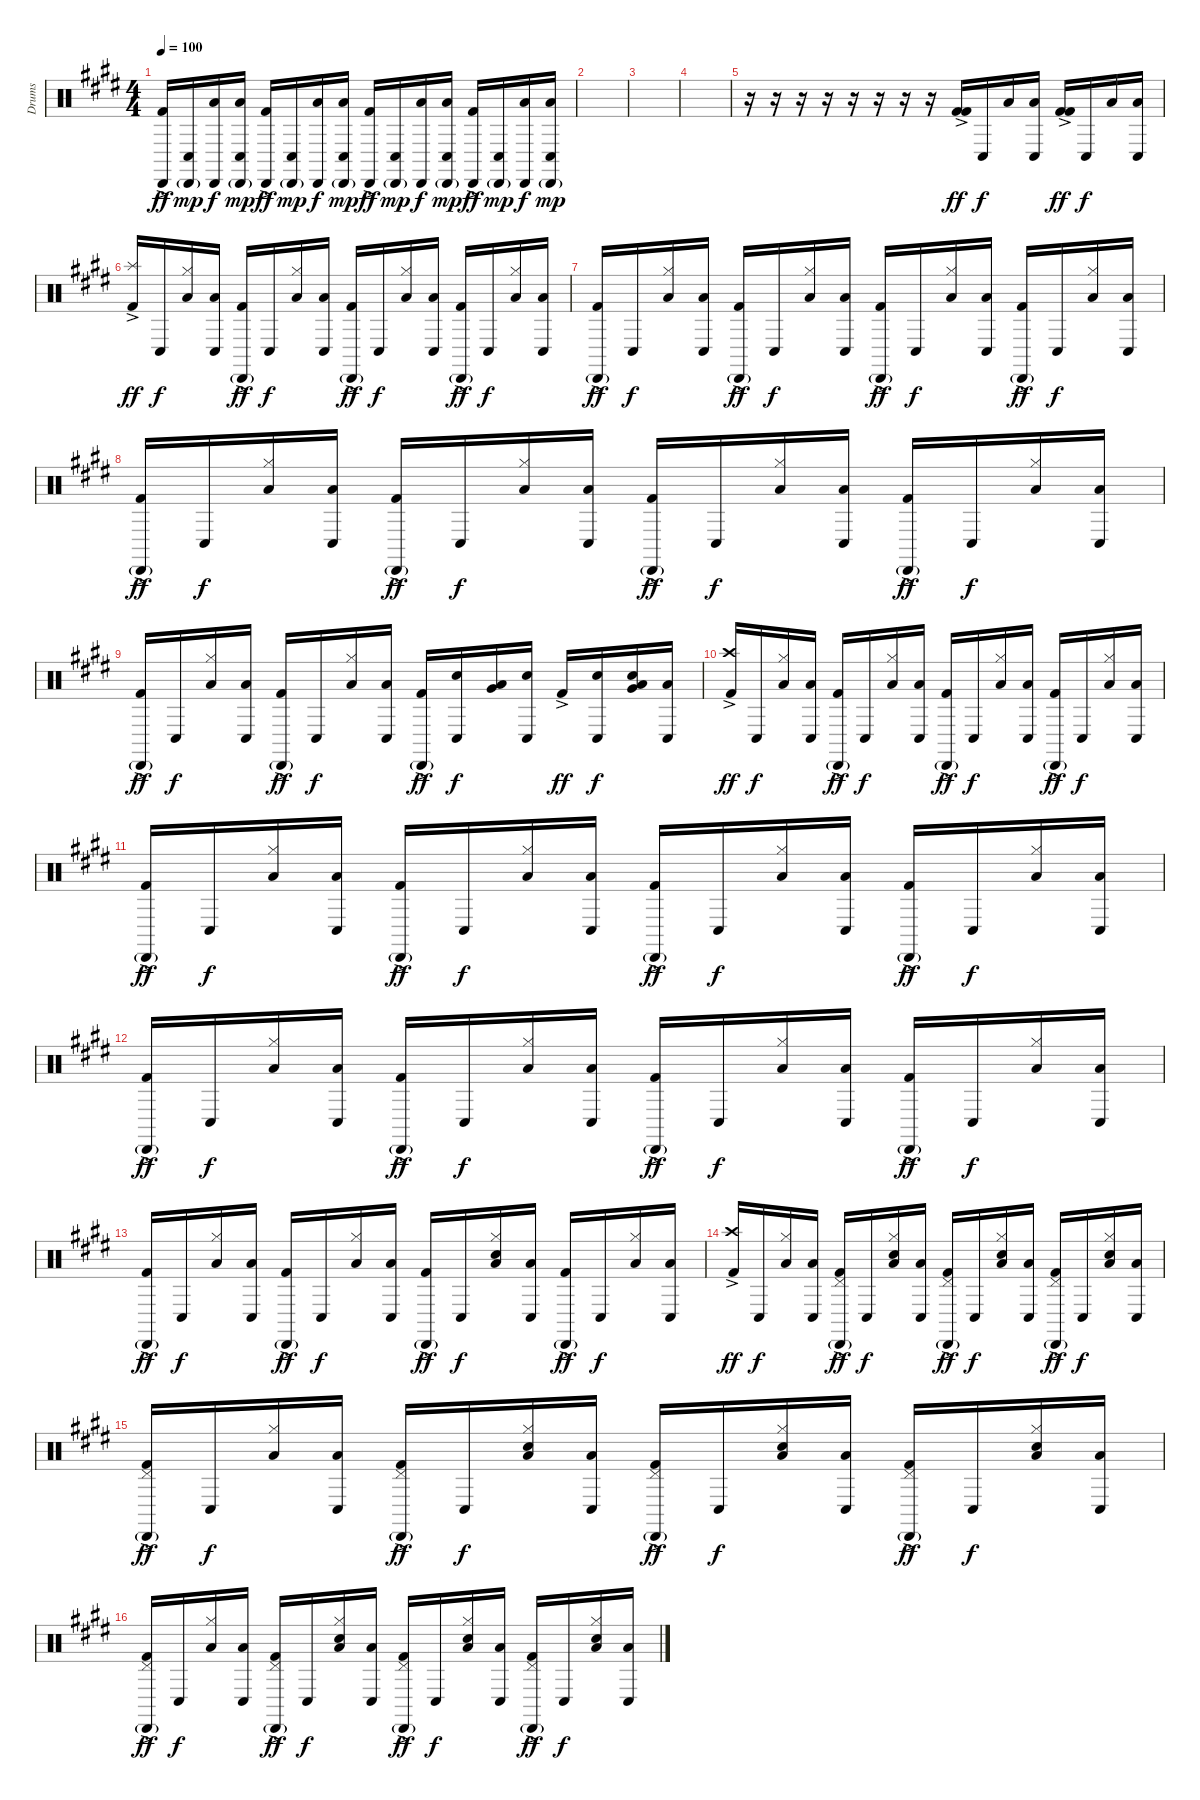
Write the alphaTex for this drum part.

\track ("Drums" "Drums") {instrument percussion}
\staff {score}
\articulation defaults
\ts (4 4)
\tempo 100
\clef neutral
\ks e
("Cabasa (hit)" "Kick (hit) 2"{ac}).16{dy ff} ("Cabasa (hit)"{g} "Conga low (hit)").16{dy mp} ("Cabasa (hit)" "Low Tom (hit)").16{dy f} ("Cabasa (hit)"{g} "Low Tom (hit)" "Conga low (hit)").16{dy mp} ("Cabasa (hit)" "Kick (hit) 2"{ac}).16{dy ff} ("Cabasa (hit)"{g} "Conga low (hit)").16{dy mp} ("Cabasa (hit)" "Low Tom (hit)").16{dy f} ("Cabasa (hit)"{g} "Low Tom (hit)" "Conga low (hit)").16{dy mp} ("Cabasa (hit)" "Kick (hit) 2"{ac}).16{dy ff} ("Cabasa (hit)"{g} "Conga low (hit)").16{dy mp} ("Cabasa (hit)" "Low Tom (hit)").16{dy f} ("Cabasa (hit)"{g} "Low Tom (hit)" "Conga low (hit)").16{dy mp} ("Cabasa (hit)" "Kick (hit) 2"{ac}).16{dy ff} ("Cabasa (hit)"{g} "Conga low (hit)").16{dy mp} ("Cabasa (hit)" "Low Tom (hit)").16{dy f} ("Cabasa (hit)"{g} "Low Tom (hit)" "Conga low (hit)").16{dy mp} |
|
|
|
r.16 r.16 r.16 r.16 r.16 r.16 r.16 r.16 ("Kick (hit) 2"{ac} "Kick (hit) 2"{ac}).16{dy ff} "Conga low (hit)".16{dy f} "Low Tom (hit)".16 ("Low Tom (hit)" "Conga low (hit)").16 ("Kick (hit) 2"{ac} "Kick (hit) 2"{ac}).16{dy ff} "Conga low (hit)".16{dy f} "Low Tom (hit)".16 ("Low Tom (hit)" "Conga low (hit)").16 |
("Splash (hit)" "Kick (hit) 2"{ac}).16{dy ff} "Conga low (hit)".16{dy f} ("Hi-Hat (closed)" "Low Tom (hit)").16 ("Low Tom (hit)" "Conga low (hit)").16 ("Cabasa (hit)"{g} "Kick (hit) 2"{ac}).16{dy ff} "Conga low (hit)".16{dy f} ("Hi-Hat (closed)" "Low Tom (hit)").16 ("Low Tom (hit)" "Conga low (hit)").16 ("Cabasa (hit)"{g} "Kick (hit) 2"{ac}).16{dy ff} "Conga low (hit)".16{dy f} ("Hi-Hat (closed)" "Low Tom (hit)").16 ("Low Tom (hit)" "Conga low (hit)").16 ("Cabasa (hit)"{g} "Kick (hit) 2"{ac}).16{dy ff} "Conga low (hit)".16{dy f} ("Hi-Hat (closed)" "Low Tom (hit)").16 ("Low Tom (hit)" "Conga low (hit)").16 |
("Cabasa (hit)"{g} "Kick (hit) 2"{ac}).16{dy ff} "Conga low (hit)".16{dy f} ("Hi-Hat (closed)" "Low Tom (hit)").16 ("Low Tom (hit)" "Conga low (hit)").16 ("Cabasa (hit)"{g} "Kick (hit) 2"{ac}).16{dy ff} "Conga low (hit)".16{dy f} ("Hi-Hat (closed)" "Low Tom (hit)").16 ("Low Tom (hit)" "Conga low (hit)").16 ("Cabasa (hit)"{g} "Kick (hit) 2"{ac}).16{dy ff} "Conga low (hit)".16{dy f} ("Hi-Hat (closed)" "Low Tom (hit)").16 ("Low Tom (hit)" "Conga low (hit)").16 ("Cabasa (hit)"{g} "Kick (hit) 2"{ac}).16{dy ff} "Conga low (hit)".16{dy f} ("Hi-Hat (closed)" "Low Tom (hit)").16 ("Low Tom (hit)" "Conga low (hit)").16 |
("Cabasa (hit)"{g} "Kick (hit) 2"{ac}).16{dy ff} "Conga low (hit)".16{dy f} ("Hi-Hat (closed)" "Low Tom (hit)").16 ("Low Tom (hit)" "Conga low (hit)").16 ("Cabasa (hit)"{g} "Kick (hit) 2"{ac}).16{dy ff} "Conga low (hit)".16{dy f} ("Hi-Hat (closed)" "Low Tom (hit)").16 ("Low Tom (hit)" "Conga low (hit)").16 ("Cabasa (hit)"{g} "Kick (hit) 2"{ac}).16{dy ff} "Conga low (hit)".16{dy f} ("Hi-Hat (closed)" "Low Tom (hit)").16 ("Low Tom (hit)" "Conga low (hit)").16 ("Cabasa (hit)"{g} "Kick (hit) 2"{ac}).16{dy ff} "Conga low (hit)".16{dy f} ("Hi-Hat (closed)" "Low Tom (hit)").16 ("Low Tom (hit)" "Conga low (hit)").16 |
("Cabasa (hit)"{g} "Kick (hit) 2"{ac}).16{dy ff} "Conga low (hit)".16{dy f} ("Hi-Hat (closed)" "Low Tom (hit)").16 ("Low Tom (hit)" "Conga low (hit)").16 ("Cabasa (hit)"{g} "Kick (hit) 2"{ac}).16{dy ff} "Conga low (hit)".16{dy f} ("Hi-Hat (closed)" "Low Tom (hit)").16 ("Low Tom (hit)" "Conga low (hit)").16 ("Cabasa (hit)"{g} "Kick (hit) 2"{ac}).16{dy ff} ("Conga low (hit)" "Electric Snare (hit)").16{dy f} ("Low Tom (hit)" "Very Low Tom (hit)").16 ("Conga low (hit)" "Electric Snare (hit)").16 "Kick (hit) 2"{ac}.16{dy ff} ("Conga low (hit)" "Electric Snare (hit)").16{dy f} ("Low Tom (hit)" "Very Low Tom (hit)" "Electric Snare (hit)").16 ("Low Tom (hit)" "Conga low (hit)").16 |
("Crash high (hit)" "Kick (hit) 2"{ac}).16{dy ff} "Conga low (hit)".16{dy f} ("Hi-Hat (closed)" "Low Tom (hit)").16 ("Low Tom (hit)" "Conga low (hit)").16 ("Cabasa (hit)"{g} "Kick (hit) 2"{ac}).16{dy ff} "Conga low (hit)".16{dy f} ("Hi-Hat (closed)" "Low Tom (hit)").16 ("Low Tom (hit)" "Conga low (hit)").16 ("Cabasa (hit)"{g} "Kick (hit) 2"{ac}).16{dy ff} "Conga low (hit)".16{dy f} ("Hi-Hat (closed)" "Low Tom (hit)").16 ("Low Tom (hit)" "Conga low (hit)").16 ("Cabasa (hit)"{g} "Kick (hit) 2"{ac}).16{dy ff} "Conga low (hit)".16{dy f} ("Hi-Hat (closed)" "Low Tom (hit)").16 ("Low Tom (hit)" "Conga low (hit)").16 |
("Cabasa (hit)"{g} "Kick (hit) 2"{ac}).16{dy ff} "Conga low (hit)".16{dy f} ("Hi-Hat (closed)" "Low Tom (hit)").16 ("Low Tom (hit)" "Conga low (hit)").16 ("Cabasa (hit)"{g} "Kick (hit) 2"{ac}).16{dy ff} "Conga low (hit)".16{dy f} ("Hi-Hat (closed)" "Low Tom (hit)").16 ("Low Tom (hit)" "Conga low (hit)").16 ("Cabasa (hit)"{g} "Kick (hit) 2"{ac}).16{dy ff} "Conga low (hit)".16{dy f} ("Hi-Hat (closed)" "Low Tom (hit)").16 ("Low Tom (hit)" "Conga low (hit)").16 ("Cabasa (hit)"{g} "Kick (hit) 2"{ac}).16{dy ff} "Conga low (hit)".16{dy f} ("Hi-Hat (closed)" "Low Tom (hit)").16 ("Low Tom (hit)" "Conga low (hit)").16 |
("Cabasa (hit)"{g} "Kick (hit) 2"{ac}).16{dy ff} "Conga low (hit)".16{dy f} ("Hi-Hat (closed)" "Low Tom (hit)").16 ("Low Tom (hit)" "Conga low (hit)").16 ("Cabasa (hit)"{g} "Kick (hit) 2"{ac}).16{dy ff} "Conga low (hit)".16{dy f} ("Hi-Hat (closed)" "Low Tom (hit)").16 ("Low Tom (hit)" "Conga low (hit)").16 ("Cabasa (hit)"{g} "Kick (hit) 2"{ac}).16{dy ff} "Conga low (hit)".16{dy f} ("Hi-Hat (closed)" "Low Tom (hit)").16 ("Low Tom (hit)" "Conga low (hit)").16 ("Cabasa (hit)"{g} "Kick (hit) 2"{ac}).16{dy ff} "Conga low (hit)".16{dy f} ("Hi-Hat (closed)" "Low Tom (hit)").16 ("Low Tom (hit)" "Conga low (hit)").16 |
("Cabasa (hit)"{g} "Kick (hit) 2"{ac}).16{dy ff} "Conga low (hit)".16{dy f} ("Hi-Hat (closed)" "Low Tom (hit)").16 ("Low Tom (hit)" "Conga low (hit)").16 ("Cabasa (hit)"{g} "Kick (hit) 2"{ac}).16{dy ff} "Conga low (hit)".16{dy f} ("Hi-Hat (closed)" "Low Tom (hit)").16 ("Low Tom (hit)" "Conga low (hit)").16 ("Cabasa (hit)"{g} "Kick (hit) 2"{ac}).16{dy ff} "Conga low (hit)".16{dy f} ("Hi-Hat (closed)" "Low Tom (hit)" "Snare (hit) 2").16 ("Low Tom (hit)" "Conga low (hit)").16 ("Cabasa (hit)"{g} "Kick (hit) 2"{ac}).16{dy ff} "Conga low (hit)".16{dy f} ("Hi-Hat (closed)" "Low Tom (hit)").16 ("Low Tom (hit)" "Conga low (hit)").16 |
("Crash high (hit)" "Kick (hit) 2"{ac}).16{dy ff} "Conga low (hit)".16{dy f} ("Hi-Hat (closed)" "Low Tom (hit)").16 ("Low Tom (hit)" "Conga low (hit)").16 ("Pedal Hi-Hat (hit)" "Cabasa (hit)"{g} "Kick (hit) 2"{ac}).16{dy ff} "Conga low (hit)".16{dy f} ("Hi-Hat (closed)" "Low Tom (hit)" "Hand Clap (hit)").16 ("Low Tom (hit)" "Conga low (hit)").16 ("Pedal Hi-Hat (hit)" "Cabasa (hit)"{g} "Kick (hit) 2"{ac}).16{dy ff} "Conga low (hit)".16{dy f} ("Hi-Hat (closed)" "Low Tom (hit)" "Hand Clap (hit)").16 ("Low Tom (hit)" "Conga low (hit)").16 ("Pedal Hi-Hat (hit)" "Cabasa (hit)"{g} "Kick (hit) 2"{ac}).16{dy ff} "Conga low (hit)".16{dy f} ("Hi-Hat (closed)" "Low Tom (hit)" "Hand Clap (hit)").16 ("Low Tom (hit)" "Conga low (hit)").16 |
("Pedal Hi-Hat (hit)" "Cabasa (hit)"{g} "Kick (hit) 2"{ac}).16{dy ff} "Conga low (hit)".16{dy f} ("Hi-Hat (closed)" "Low Tom (hit)").16 ("Low Tom (hit)" "Conga low (hit)").16 ("Pedal Hi-Hat (hit)" "Cabasa (hit)"{g} "Kick (hit) 2"{ac}).16{dy ff} "Conga low (hit)".16{dy f} ("Hi-Hat (closed)" "Low Tom (hit)" "Hand Clap (hit)").16 ("Low Tom (hit)" "Conga low (hit)").16 ("Pedal Hi-Hat (hit)" "Cabasa (hit)"{g} "Kick (hit) 2"{ac}).16{dy ff} "Conga low (hit)".16{dy f} ("Hi-Hat (closed)" "Low Tom (hit)" "Hand Clap (hit)").16 ("Low Tom (hit)" "Conga low (hit)").16 ("Pedal Hi-Hat (hit)" "Cabasa (hit)"{g} "Kick (hit) 2"{ac}).16{dy ff} "Conga low (hit)".16{dy f} ("Hi-Hat (closed)" "Low Tom (hit)" "Hand Clap (hit)").16 ("Low Tom (hit)" "Conga low (hit)").16 |
("Pedal Hi-Hat (hit)" "Cabasa (hit)"{g} "Kick (hit) 2"{ac}).16{dy ff} "Conga low (hit)".16{dy f} ("Hi-Hat (closed)" "Low Tom (hit)").16 ("Low Tom (hit)" "Conga low (hit)").16 ("Pedal Hi-Hat (hit)" "Cabasa (hit)"{g} "Kick (hit) 2"{ac}).16{dy ff} "Conga low (hit)".16{dy f} ("Hi-Hat (closed)" "Low Tom (hit)" "Hand Clap (hit)").16 ("Low Tom (hit)" "Conga low (hit)").16 ("Pedal Hi-Hat (hit)" "Cabasa (hit)"{g} "Kick (hit) 2"{ac}).16{dy ff} "Conga low (hit)".16{dy f} ("Hi-Hat (closed)" "Low Tom (hit)" "Hand Clap (hit)").16 ("Low Tom (hit)" "Conga low (hit)").16 ("Pedal Hi-Hat (hit)" "Cabasa (hit)"{g} "Kick (hit) 2"{ac}).16{dy ff} "Conga low (hit)".16{dy f} ("Hi-Hat (closed)" "Low Tom (hit)" "Hand Clap (hit)").16 ("Low Tom (hit)" "Conga low (hit)").16
